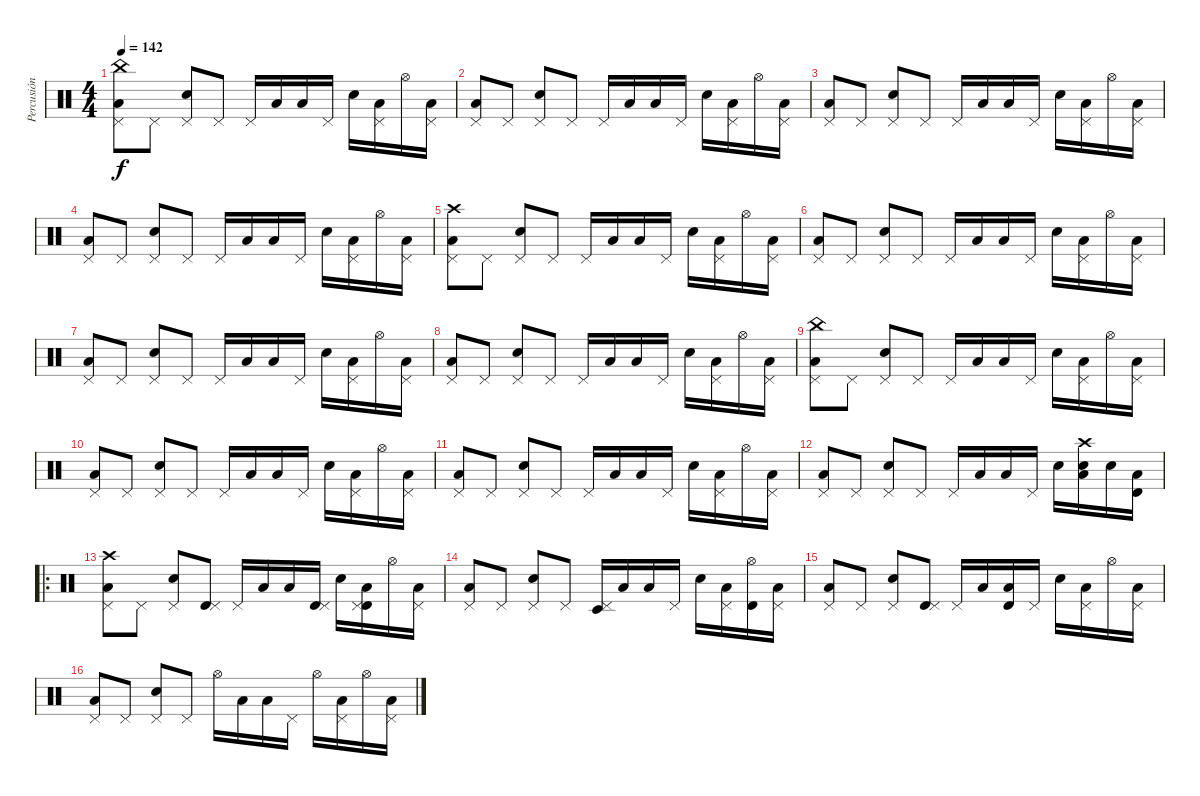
\track ("Percusión" "Percusión") {instrument percussion}
\staff {score}
\articulation defaults
\ts (4 4)
\tempo 142
\clef neutral
\ks c
("China (hit)" "Pedal Hi-Hat (hit)" "Low Floor Tom (hit)").8{dy f} "Pedal Hi-Hat (hit)".8 ("Pedal Hi-Hat (hit)" "Snare (hit) 2").8 "Pedal Hi-Hat (hit)".8 "Pedal Hi-Hat (hit)".16 "Low Floor Tom (hit)".16 "Low Floor Tom (hit)".16 "Pedal Hi-Hat (hit)".16 "Snare (hit) 2".16 ("Pedal Hi-Hat (hit)" "Low Floor Tom (hit)").16 "Hi-Hat (open)".16 ("Pedal Hi-Hat (hit)" "Low Floor Tom (hit)").16 |
("Pedal Hi-Hat (hit)" "Low Floor Tom (hit)").8 "Pedal Hi-Hat (hit)".8 ("Pedal Hi-Hat (hit)" "Snare (hit) 2").8 "Pedal Hi-Hat (hit)".8 "Pedal Hi-Hat (hit)".16 "Low Floor Tom (hit)".16 "Low Floor Tom (hit)".16 "Pedal Hi-Hat (hit)".16 "Snare (hit) 2".16 ("Pedal Hi-Hat (hit)" "Low Floor Tom (hit)").16 "Hi-Hat (open)".16 ("Pedal Hi-Hat (hit)" "Low Floor Tom (hit)").16 |
("Pedal Hi-Hat (hit)" "Low Floor Tom (hit)").8 "Pedal Hi-Hat (hit)".8 ("Pedal Hi-Hat (hit)" "Snare (hit) 2").8 "Pedal Hi-Hat (hit)".8 "Pedal Hi-Hat (hit)".16 "Low Floor Tom (hit)".16 "Low Floor Tom (hit)".16 "Pedal Hi-Hat (hit)".16 "Snare (hit) 2".16 ("Pedal Hi-Hat (hit)" "Low Floor Tom (hit)").16 "Hi-Hat (open)".16 ("Pedal Hi-Hat (hit)" "Low Floor Tom (hit)").16 |
("Pedal Hi-Hat (hit)" "Low Floor Tom (hit)").8 "Pedal Hi-Hat (hit)".8 ("Pedal Hi-Hat (hit)" "Snare (hit) 2").8 "Pedal Hi-Hat (hit)".8 "Pedal Hi-Hat (hit)".16 "Low Floor Tom (hit)".16 "Low Floor Tom (hit)".16 "Pedal Hi-Hat (hit)".16 "Snare (hit) 2".16 ("Pedal Hi-Hat (hit)" "Low Floor Tom (hit)").16 "Hi-Hat (open)".16 ("Pedal Hi-Hat (hit)" "Low Floor Tom (hit)").16 |
("Crash high (hit)" "Pedal Hi-Hat (hit)" "Low Floor Tom (hit)").8 "Pedal Hi-Hat (hit)".8 ("Pedal Hi-Hat (hit)" "Snare (hit) 2").8 "Pedal Hi-Hat (hit)".8 "Pedal Hi-Hat (hit)".16 "Low Floor Tom (hit)".16 "Low Floor Tom (hit)".16 "Pedal Hi-Hat (hit)".16 "Snare (hit) 2".16 ("Pedal Hi-Hat (hit)" "Low Floor Tom (hit)").16 "Hi-Hat (open)".16 ("Pedal Hi-Hat (hit)" "Low Floor Tom (hit)").16 |
("Pedal Hi-Hat (hit)" "Low Floor Tom (hit)").8 "Pedal Hi-Hat (hit)".8 ("Pedal Hi-Hat (hit)" "Snare (hit) 2").8 "Pedal Hi-Hat (hit)".8 "Pedal Hi-Hat (hit)".16 "Low Floor Tom (hit)".16 "Low Floor Tom (hit)".16 "Pedal Hi-Hat (hit)".16 "Snare (hit) 2".16 ("Pedal Hi-Hat (hit)" "Low Floor Tom (hit)").16 "Hi-Hat (open)".16 ("Pedal Hi-Hat (hit)" "Low Floor Tom (hit)").16 |
("Pedal Hi-Hat (hit)" "Low Floor Tom (hit)").8 "Pedal Hi-Hat (hit)".8 ("Pedal Hi-Hat (hit)" "Snare (hit) 2").8 "Pedal Hi-Hat (hit)".8 "Pedal Hi-Hat (hit)".16 "Low Floor Tom (hit)".16 "Low Floor Tom (hit)".16 "Pedal Hi-Hat (hit)".16 "Snare (hit) 2".16 ("Pedal Hi-Hat (hit)" "Low Floor Tom (hit)").16 "Hi-Hat (open)".16 ("Pedal Hi-Hat (hit)" "Low Floor Tom (hit)").16 |
("Pedal Hi-Hat (hit)" "Low Floor Tom (hit)").8 "Pedal Hi-Hat (hit)".8 ("Pedal Hi-Hat (hit)" "Snare (hit) 2").8 "Pedal Hi-Hat (hit)".8 "Pedal Hi-Hat (hit)".16 "Low Floor Tom (hit)".16 "Low Floor Tom (hit)".16 "Pedal Hi-Hat (hit)".16 "Snare (hit) 2".16 ("Pedal Hi-Hat (hit)" "Low Floor Tom (hit)").16 "Hi-Hat (open)".16 ("Pedal Hi-Hat (hit)" "Low Floor Tom (hit)").16 |
("China (hit)" "Pedal Hi-Hat (hit)" "Low Floor Tom (hit)").8 "Pedal Hi-Hat (hit)".8 ("Pedal Hi-Hat (hit)" "Snare (hit) 2").8 "Pedal Hi-Hat (hit)".8 "Pedal Hi-Hat (hit)".16 "Low Floor Tom (hit)".16 "Low Floor Tom (hit)".16 "Pedal Hi-Hat (hit)".16 "Snare (hit) 2".16 ("Pedal Hi-Hat (hit)" "Low Floor Tom (hit)").16 "Hi-Hat (open)".16 ("Pedal Hi-Hat (hit)" "Low Floor Tom (hit)").16 |
("Pedal Hi-Hat (hit)" "Low Floor Tom (hit)").8 "Pedal Hi-Hat (hit)".8 ("Pedal Hi-Hat (hit)" "Snare (hit) 2").8 "Pedal Hi-Hat (hit)".8 "Pedal Hi-Hat (hit)".16 "Low Floor Tom (hit)".16 "Low Floor Tom (hit)".16 "Pedal Hi-Hat (hit)".16 "Snare (hit) 2".16 ("Pedal Hi-Hat (hit)" "Low Floor Tom (hit)").16 "Hi-Hat (open)".16 ("Pedal Hi-Hat (hit)" "Low Floor Tom (hit)").16 |
("Pedal Hi-Hat (hit)" "Low Floor Tom (hit)").8 "Pedal Hi-Hat (hit)".8 ("Pedal Hi-Hat (hit)" "Snare (hit) 2").8 "Pedal Hi-Hat (hit)".8 "Pedal Hi-Hat (hit)".16 "Low Floor Tom (hit)".16 "Low Floor Tom (hit)".16 "Pedal Hi-Hat (hit)".16 "Snare (hit) 2".16 ("Pedal Hi-Hat (hit)" "Low Floor Tom (hit)").16 "Hi-Hat (open)".16 ("Pedal Hi-Hat (hit)" "Low Floor Tom (hit)").16 |
("Pedal Hi-Hat (hit)" "Low Floor Tom (hit)").8 "Pedal Hi-Hat (hit)".8 ("Pedal Hi-Hat (hit)" "Snare (hit) 2").8 "Pedal Hi-Hat (hit)".8 "Pedal Hi-Hat (hit)".16 "Low Floor Tom (hit)".16 "Low Floor Tom (hit)".16 "Pedal Hi-Hat (hit)".16 "Snare (hit) 2".16 ("Crash high (hit)" "Snare (hit) 2" "Low Floor Tom (hit)").16 "Snare (hit) 2".16 ("Timbale high (hit)" "Low Floor Tom (hit)").16 |
\ro
("Crash high (hit)" "Pedal Hi-Hat (hit)" "Low Floor Tom (hit)").8 "Pedal Hi-Hat (hit)".8 ("Pedal Hi-Hat (hit)" "Snare (hit) 2").8 ("Timbale high (hit)" "Pedal Hi-Hat (hit)").8 "Pedal Hi-Hat (hit)".16 "Low Floor Tom (hit)".16 "Low Floor Tom (hit)".16 ("Timbale high (hit)" "Pedal Hi-Hat (hit)").16 "Snare (hit) 2".16 ("Timbale high (hit)" "Pedal Hi-Hat (hit)" "Low Floor Tom (hit)").16 "Hi-Hat (open)".16 ("Pedal Hi-Hat (hit)" "Low Floor Tom (hit)").16 |
("Pedal Hi-Hat (hit)" "Low Floor Tom (hit)").8 "Pedal Hi-Hat (hit)".8 ("Pedal Hi-Hat (hit)" "Snare (hit) 2").8 "Pedal Hi-Hat (hit)".8 ("Timbale low (hit)" "Pedal Hi-Hat (hit)").16 "Low Floor Tom (hit)".16 "Low Floor Tom (hit)".16 "Pedal Hi-Hat (hit)".16 "Snare (hit) 2".16 ("Pedal Hi-Hat (hit)" "Low Floor Tom (hit)").16 ("Timbale high (hit)" "Hi-Hat (open)").16 ("Pedal Hi-Hat (hit)" "Low Floor Tom (hit)").16 |
("Pedal Hi-Hat (hit)" "Low Floor Tom (hit)").8 "Pedal Hi-Hat (hit)".8 ("Pedal Hi-Hat (hit)" "Snare (hit) 2").8 ("Timbale high (hit)" "Pedal Hi-Hat (hit)").8 "Pedal Hi-Hat (hit)".16 "Low Floor Tom (hit)".16 ("Timbale high (hit)" "Low Floor Tom (hit)").16 "Pedal Hi-Hat (hit)".16 "Snare (hit) 2".16 ("Pedal Hi-Hat (hit)" "Low Floor Tom (hit)").16 "Hi-Hat (open)".16 ("Pedal Hi-Hat (hit)" "Low Floor Tom (hit)").16 |
("Pedal Hi-Hat (hit)" "Low Floor Tom (hit)").8 "Pedal Hi-Hat (hit)".8 ("Pedal Hi-Hat (hit)" "Snare (hit) 2").8 "Pedal Hi-Hat (hit)".8 "Hi-Hat (open)".16 "Low Floor Tom (hit)".16 "Low Floor Tom (hit)".16 "Pedal Hi-Hat (hit)".16 "Hi-Hat (open)".16 ("Pedal Hi-Hat (hit)" "Low Floor Tom (hit)").16 "Hi-Hat (open)".16 ("Pedal Hi-Hat (hit)" "Low Floor Tom (hit)").16
